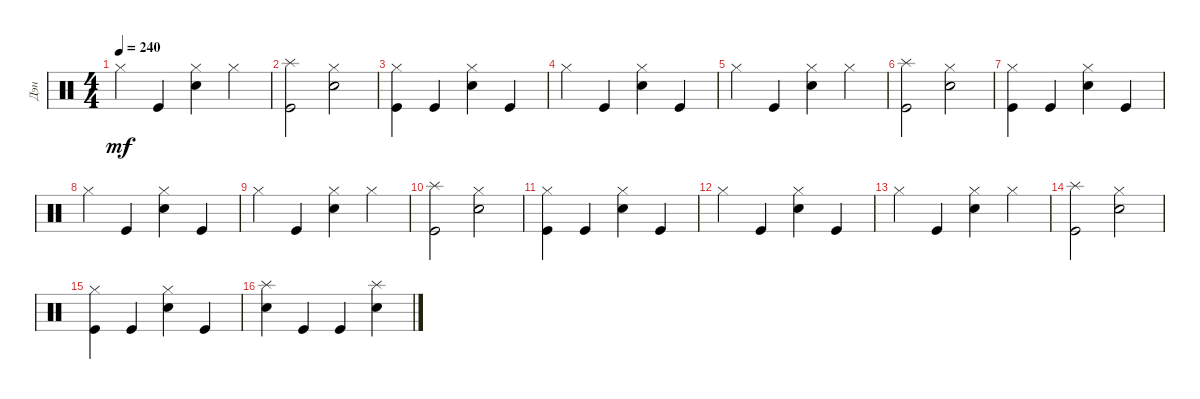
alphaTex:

\track ("Дэн" "Дэн") {instrument percussion}
\staff {score}
\articulation defaults
\ts (4 4)
\tempo 240
\clef neutral
\ks c "Hi-Hat (closed)".4{dy mf} "Kick (hit)".4
("Snare (hit) 2" "Hi-Hat (closed)").4 "Hi-Hat (closed)".4 |
("Kick (hit)" "Splash (hit)").2 ("Snare (hit) 2" "Hi-Hat (closed)").2 |
("Kick (hit)" "Hi-Hat (closed)").4 "Kick (hit)".4 ("Snare (hit) 2" "Hi-Hat (closed)").4 "Kick (hit)".4 |
"Hi-Hat (closed)".4 "Kick (hit)".4 ("Snare (hit) 2" "Hi-Hat (closed)").4 "Kick (hit)".4 |
"Hi-Hat (closed)".4 "Kick (hit)".4 ("Snare (hit) 2" "Hi-Hat (closed)").4 "Hi-Hat (closed)".4 |
("Kick (hit)" "Splash (hit)").2 ("Snare (hit) 2" "Hi-Hat (closed)").2 |
("Kick (hit)" "Hi-Hat (closed)").4 "Kick (hit)".4 ("Snare (hit) 2" "Hi-Hat (closed)").4 "Kick (hit)".4 |
"Hi-Hat (closed)".4 "Kick (hit)".4 ("Snare (hit) 2" "Hi-Hat (closed)").4 "Kick (hit)".4 |
"Hi-Hat (closed)".4 "Kick (hit)".4 ("Snare (hit) 2" "Hi-Hat (closed)").4 "Hi-Hat (closed)".4 |
("Kick (hit)" "Splash (hit)").2 ("Snare (hit) 2" "Hi-Hat (closed)").2 |
("Kick (hit)" "Hi-Hat (closed)").4 "Kick (hit)".4 ("Snare (hit) 2" "Hi-Hat (closed)").4 "Kick (hit)".4 |
"Hi-Hat (closed)".4 "Kick (hit)".4 ("Snare (hit) 2" "Hi-Hat (closed)").4 "Kick (hit)".4 |
"Hi-Hat (closed)".4 "Kick (hit)".4 ("Snare (hit) 2" "Hi-Hat (closed)").4 "Hi-Hat (closed)".4 |
("Kick (hit)" "Splash (hit)").2 ("Snare (hit) 2" "Hi-Hat (closed)").2 |
("Kick (hit)" "Hi-Hat (closed)").4 "Kick (hit)".4 ("Snare (hit) 2" "Hi-Hat (closed)").4 "Kick (hit)".4 |
("Splash (hit)" "Snare (hit) 2").4 "Kick (hit)".4 "Kick (hit)".4 ("Snare (hit) 2" "Splash (hit)").4
